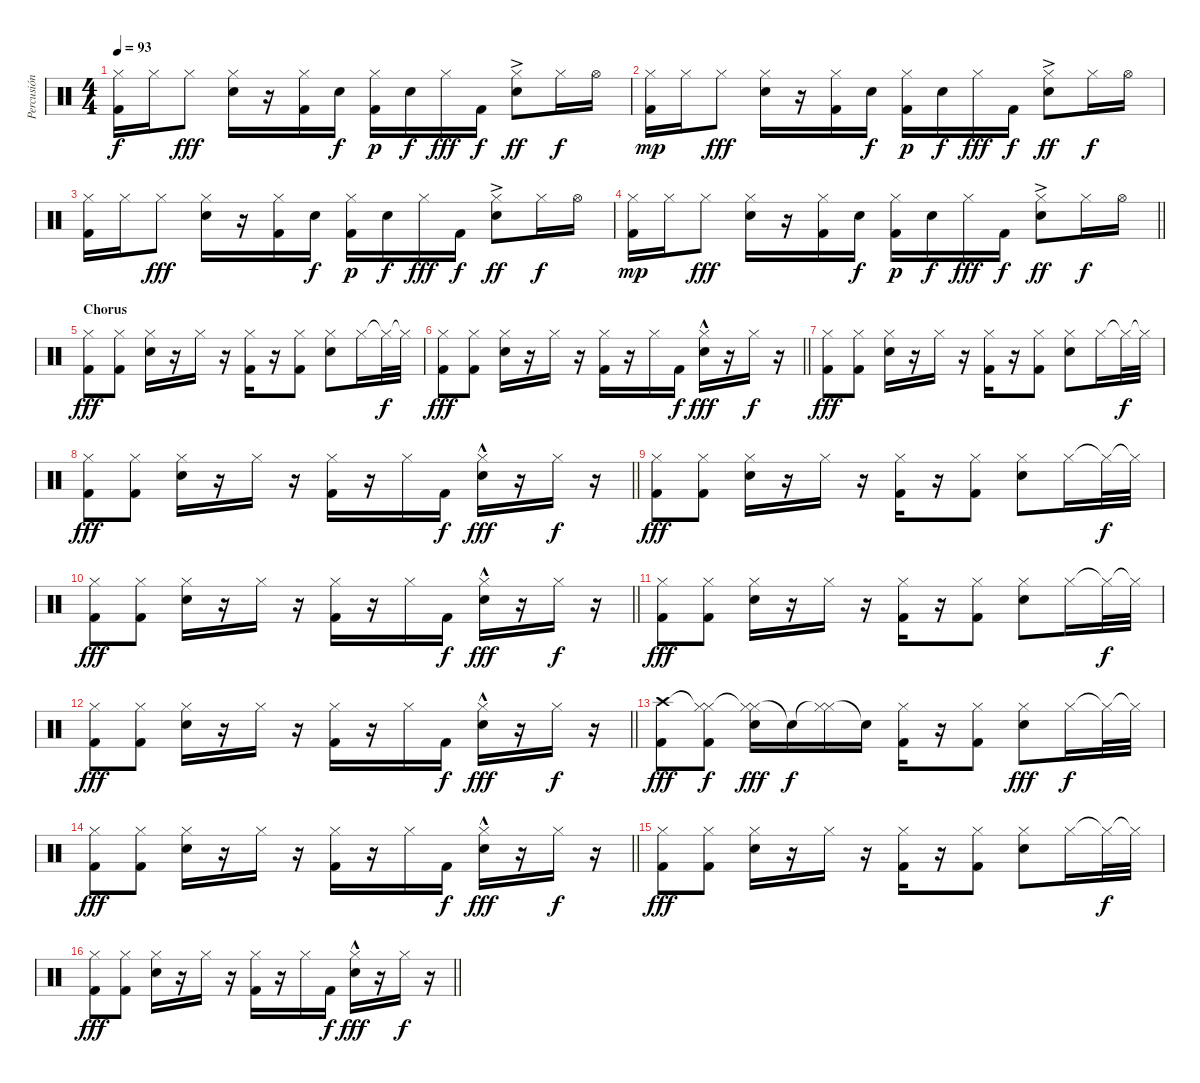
\track ("Percusión" "Percusión") {instrument percussion}
\staff {score}
\articulation defaults
\ts (4 4)
\tempo 93
\clef neutral
\ks c
("Hi-Hat (closed)" "Kick (hit) 2").16{dy f} "Hi-Hat (closed)".16 "Hi-Hat (closed)".8{dy fff} ("Hi-Hat (closed)" "Snare (hit) 2").16 r.16 ("Hi-Hat (closed)" "Kick (hit) 2").16 "Snare (hit) 2".16{dy f} ("Hi-Hat (closed)" "Kick (hit) 2").16{dy p} "Snare (hit) 2".16{dy f} "Hi-Hat (closed)".16{dy fff} "Kick (hit) 2".16{dy f} ("Hi-Hat (closed)" "Snare (hit) 2"{ac}).8{dy ff} "Hi-Hat (closed)".16{dy f} "Hi-Hat (open)".16 |
("Hi-Hat (closed)" "Kick (hit) 2").16{dy mp} "Hi-Hat (closed)".16 "Hi-Hat (closed)".8{dy fff} ("Hi-Hat (closed)" "Snare (hit) 2").16 r.16 ("Hi-Hat (closed)" "Kick (hit) 2").16 "Snare (hit) 2".16{dy f} ("Hi-Hat (closed)" "Kick (hit) 2").16{dy p} "Snare (hit) 2".16{dy f} "Hi-Hat (closed)".16{dy fff} "Kick (hit) 2".16{dy f} ("Hi-Hat (closed)" "Snare (hit) 2"{ac}).8{dy ff} "Hi-Hat (closed)".16{dy f} "Hi-Hat (open)".16 |
("Hi-Hat (closed)" "Kick (hit) 2").16 "Hi-Hat (closed)".16 "Hi-Hat (closed)".8{dy fff} ("Hi-Hat (closed)" "Snare (hit) 2").16 r.16 ("Hi-Hat (closed)" "Kick (hit) 2").16 "Snare (hit) 2".16{dy f} ("Hi-Hat (closed)" "Kick (hit) 2").16{dy p} "Snare (hit) 2".16{dy f} "Hi-Hat (closed)".16{dy fff} "Kick (hit) 2".16{dy f} ("Hi-Hat (closed)" "Snare (hit) 2"{ac}).8{dy ff} "Hi-Hat (closed)".16{dy f} "Hi-Hat (open)".16 |
\barLineRight lightlight
("Hi-Hat (closed)" "Kick (hit) 2").16{dy mp} "Hi-Hat (closed)".16 "Hi-Hat (closed)".8{dy fff} ("Hi-Hat (closed)" "Snare (hit) 2").16 r.16 ("Hi-Hat (closed)" "Kick (hit) 2").16 "Snare (hit) 2".16{dy f} ("Hi-Hat (closed)" "Kick (hit) 2").16{dy p} "Snare (hit) 2".16{dy f} "Hi-Hat (closed)".16{dy fff} "Kick (hit) 2".16{dy f} ("Hi-Hat (closed)" "Snare (hit) 2"{ac}).8{dy ff} "Hi-Hat (closed)".16{dy f} "Hi-Hat (open)".16 |
\section ("" "Chorus")
("Hi-Hat (closed)" "Kick (hit) 2").8{dy fff} ("Hi-Hat (closed)" "Kick (hit) 2").8 ("Hi-Hat (closed)" "Snare (hit) 2").16 r.16 "Hi-Hat (closed)".16 r.16 ("Hi-Hat (closed)" "Kick (hit) 2").16 r.16 ("Hi-Hat (closed)" "Kick (hit) 2").8 ("Hi-Hat (closed)" "Snare (hit) 2").8 "Hi-Hat (closed)".16 "Hi-Hat (closed)"{t}.32{dy f} "Hi-Hat (closed)"{t}.32 |
\barLineRight lightlight
("Hi-Hat (closed)" "Kick (hit) 2").8{dy fff} ("Hi-Hat (closed)" "Kick (hit) 2").8 ("Hi-Hat (closed)" "Snare (hit) 2").16 r.16 "Hi-Hat (closed)".16 r.16 ("Hi-Hat (closed)" "Kick (hit) 2").16 r.16 "Hi-Hat (closed)".16 "Kick (hit) 2".16{dy f} ("Hi-Hat (closed)" "Snare (hit) 2"{hac}).16{dy fff} r.16 "Hi-Hat (closed)".16{dy f} r.16 |
("Hi-Hat (closed)" "Kick (hit) 2").8{dy fff} ("Hi-Hat (closed)" "Kick (hit) 2").8 ("Hi-Hat (closed)" "Snare (hit) 2").16 r.16 "Hi-Hat (closed)".16 r.16 ("Hi-Hat (closed)" "Kick (hit) 2").16 r.16 ("Hi-Hat (closed)" "Kick (hit) 2").8 ("Hi-Hat (closed)" "Snare (hit) 2").8 "Hi-Hat (closed)".16 "Hi-Hat (closed)"{t}.32{dy f} "Hi-Hat (closed)"{t}.32 |
\barLineRight lightlight
("Hi-Hat (closed)" "Kick (hit) 2").8{dy fff} ("Hi-Hat (closed)" "Kick (hit) 2").8 ("Hi-Hat (closed)" "Snare (hit) 2").16 r.16 "Hi-Hat (closed)".16 r.16 ("Hi-Hat (closed)" "Kick (hit) 2").16 r.16 "Hi-Hat (closed)".16 "Kick (hit) 2".16{dy f} ("Hi-Hat (closed)" "Snare (hit) 2"{hac}).16{dy fff} r.16 "Hi-Hat (closed)".16{dy f} r.16 |
("Hi-Hat (closed)" "Kick (hit) 2").8{dy fff} ("Hi-Hat (closed)" "Kick (hit) 2").8 ("Hi-Hat (closed)" "Snare (hit) 2").16 r.16 "Hi-Hat (closed)".16 r.16 ("Hi-Hat (closed)" "Kick (hit) 2").16 r.16 ("Hi-Hat (closed)" "Kick (hit) 2").8 ("Hi-Hat (closed)" "Snare (hit) 2").8 "Hi-Hat (closed)".16 "Hi-Hat (closed)"{t}.32{dy f} "Hi-Hat (closed)"{t}.32 |
\barLineRight lightlight
("Hi-Hat (closed)" "Kick (hit) 2").8{dy fff} ("Hi-Hat (closed)" "Kick (hit) 2").8 ("Hi-Hat (closed)" "Snare (hit) 2").16 r.16 "Hi-Hat (closed)".16 r.16 ("Hi-Hat (closed)" "Kick (hit) 2").16 r.16 "Hi-Hat (closed)".16 "Kick (hit) 2".16{dy f} ("Hi-Hat (closed)" "Snare (hit) 2"{hac}).16{dy fff} r.16 "Hi-Hat (closed)".16{dy f} r.16 |
("Hi-Hat (closed)" "Kick (hit) 2").8{dy fff} ("Hi-Hat (closed)" "Kick (hit) 2").8 ("Hi-Hat (closed)" "Snare (hit) 2").16 r.16 "Hi-Hat (closed)".16 r.16 ("Hi-Hat (closed)" "Kick (hit) 2").16 r.16 ("Hi-Hat (closed)" "Kick (hit) 2").8 ("Hi-Hat (closed)" "Snare (hit) 2").8 "Hi-Hat (closed)".16 "Hi-Hat (closed)"{t}.32{dy f} "Hi-Hat (closed)"{t}.32 |
\barLineRight lightlight
("Hi-Hat (closed)" "Kick (hit) 2").8{dy fff} ("Hi-Hat (closed)" "Kick (hit) 2").8 ("Hi-Hat (closed)" "Snare (hit) 2").16 r.16 "Hi-Hat (closed)".16 r.16 ("Hi-Hat (closed)" "Kick (hit) 2").16 r.16 "Hi-Hat (closed)".16 "Kick (hit) 2".16{dy f} ("Hi-Hat (closed)" "Snare (hit) 2"{hac}).16{dy fff} r.16 "Hi-Hat (closed)".16{dy f} r.16 |
("Crash high (hit)" "Kick (hit) 2").8{dy fff} ("Hi-Hat (closed)"{t} "Hi-Hat (closed)" "Kick (hit) 2").8{dy f} ("Hi-Hat (closed)"{t} "Hi-Hat (closed)" "Snare (hit) 2").16{dy fff} "Snare (hit)"{t}.16{dy f} ("Hi-Hat (closed)"{t} "Hi-Hat (closed)").16 "Snare (hit)"{t}.16 ("Hi-Hat (closed)" "Kick (hit) 2").16 r.16 ("Hi-Hat (closed)" "Kick (hit) 2").8 ("Hi-Hat (closed)" "Snare (hit) 2").8{dy fff} "Hi-Hat (closed)".16{dy f} "Hi-Hat (closed)"{t}.32 "Hi-Hat (closed)"{t}.32 |
\barLineRight lightlight
("Hi-Hat (closed)" "Kick (hit) 2").8{dy fff} ("Hi-Hat (closed)" "Kick (hit) 2").8 ("Hi-Hat (closed)" "Snare (hit) 2").16 r.16 "Hi-Hat (closed)".16 r.16 ("Hi-Hat (closed)" "Kick (hit) 2").16 r.16 "Hi-Hat (closed)".16 "Kick (hit) 2".16{dy f} ("Hi-Hat (closed)" "Snare (hit) 2"{hac}).16{dy fff} r.16 "Hi-Hat (closed)".16{dy f} r.16 |
("Hi-Hat (closed)" "Kick (hit) 2").8{dy fff} ("Hi-Hat (closed)" "Kick (hit) 2").8 ("Hi-Hat (closed)" "Snare (hit) 2").16 r.16 "Hi-Hat (closed)".16 r.16 ("Hi-Hat (closed)" "Kick (hit) 2").16 r.16 ("Hi-Hat (closed)" "Kick (hit) 2").8 ("Hi-Hat (closed)" "Snare (hit) 2").8 "Hi-Hat (closed)".16 "Hi-Hat (closed)"{t}.32{dy f} "Hi-Hat (closed)"{t}.32 |
\barLineRight lightlight
("Hi-Hat (closed)" "Kick (hit) 2").8{dy fff} ("Hi-Hat (closed)" "Kick (hit) 2").8 ("Hi-Hat (closed)" "Snare (hit) 2").16 r.16 "Hi-Hat (closed)".16 r.16 ("Hi-Hat (closed)" "Kick (hit) 2").16 r.16 "Hi-Hat (closed)".16 "Kick (hit) 2".16{dy f} ("Hi-Hat (closed)" "Snare (hit) 2"{hac}).16{dy fff} r.16 "Hi-Hat (closed)".16{dy f} r.16
